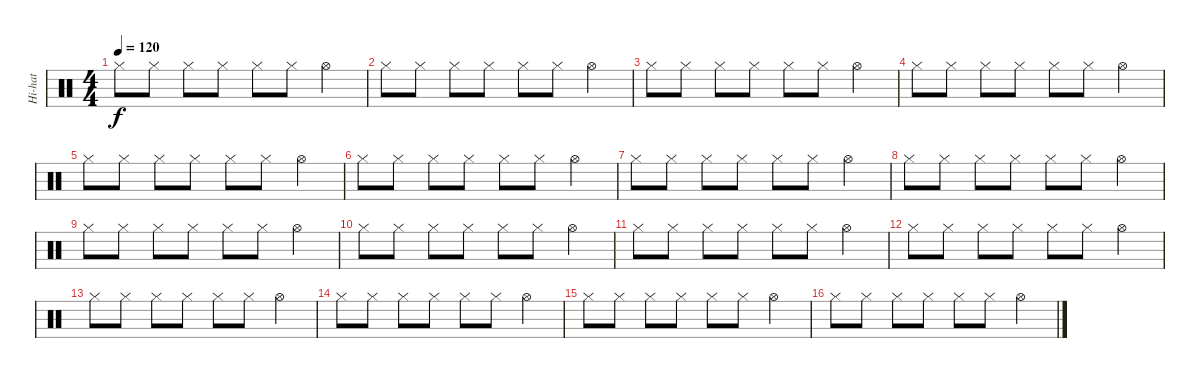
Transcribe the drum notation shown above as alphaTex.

\track ("Hi-hat" "Hi-hat") {instrument percussion}
\staff {score}
\articulation defaults
\ts (4 4)
\tempo 120
\clef neutral
\ks c "Hi-Hat (closed)".8{dy f} "Hi-Hat (closed)".8 "Hi-Hat (closed)".8 "Hi-Hat (closed)".8 "Hi-Hat (closed)".8 "Hi-Hat (closed)".8 "Hi-Hat (open)".4
|
"Hi-Hat (closed)".8 "Hi-Hat (closed)".8 "Hi-Hat (closed)".8 "Hi-Hat (closed)".8 "Hi-Hat (closed)".8 "Hi-Hat (closed)".8 "Hi-Hat (open)".4 |
"Hi-Hat (closed)".8 "Hi-Hat (closed)".8 "Hi-Hat (closed)".8 "Hi-Hat (closed)".8 "Hi-Hat (closed)".8 "Hi-Hat (closed)".8 "Hi-Hat (open)".4 |
"Hi-Hat (closed)".8 "Hi-Hat (closed)".8 "Hi-Hat (closed)".8 "Hi-Hat (closed)".8 "Hi-Hat (closed)".8 "Hi-Hat (closed)".8 "Hi-Hat (open)".4 |
"Hi-Hat (closed)".8 "Hi-Hat (closed)".8 "Hi-Hat (closed)".8 "Hi-Hat (closed)".8 "Hi-Hat (closed)".8 "Hi-Hat (closed)".8 "Hi-Hat (open)".4 |
"Hi-Hat (closed)".8 "Hi-Hat (closed)".8 "Hi-Hat (closed)".8 "Hi-Hat (closed)".8 "Hi-Hat (closed)".8 "Hi-Hat (closed)".8 "Hi-Hat (open)".4 |
"Hi-Hat (closed)".8 "Hi-Hat (closed)".8 "Hi-Hat (closed)".8 "Hi-Hat (closed)".8 "Hi-Hat (closed)".8 "Hi-Hat (closed)".8 "Hi-Hat (open)".4 |
"Hi-Hat (closed)".8 "Hi-Hat (closed)".8 "Hi-Hat (closed)".8 "Hi-Hat (closed)".8 "Hi-Hat (closed)".8 "Hi-Hat (closed)".8 "Hi-Hat (open)".4 |
"Hi-Hat (closed)".8 "Hi-Hat (closed)".8 "Hi-Hat (closed)".8 "Hi-Hat (closed)".8 "Hi-Hat (closed)".8 "Hi-Hat (closed)".8 "Hi-Hat (open)".4 |
"Hi-Hat (closed)".8 "Hi-Hat (closed)".8 "Hi-Hat (closed)".8 "Hi-Hat (closed)".8 "Hi-Hat (closed)".8 "Hi-Hat (closed)".8 "Hi-Hat (open)".4 |
"Hi-Hat (closed)".8 "Hi-Hat (closed)".8 "Hi-Hat (closed)".8 "Hi-Hat (closed)".8 "Hi-Hat (closed)".8 "Hi-Hat (closed)".8 "Hi-Hat (open)".4 |
"Hi-Hat (closed)".8 "Hi-Hat (closed)".8 "Hi-Hat (closed)".8 "Hi-Hat (closed)".8 "Hi-Hat (closed)".8 "Hi-Hat (closed)".8 "Hi-Hat (open)".4 |
"Hi-Hat (closed)".8 "Hi-Hat (closed)".8 "Hi-Hat (closed)".8 "Hi-Hat (closed)".8 "Hi-Hat (closed)".8 "Hi-Hat (closed)".8 "Hi-Hat (open)".4 |
"Hi-Hat (closed)".8 "Hi-Hat (closed)".8 "Hi-Hat (closed)".8 "Hi-Hat (closed)".8 "Hi-Hat (closed)".8 "Hi-Hat (closed)".8 "Hi-Hat (open)".4 |
"Hi-Hat (closed)".8 "Hi-Hat (closed)".8 "Hi-Hat (closed)".8 "Hi-Hat (closed)".8 "Hi-Hat (closed)".8 "Hi-Hat (closed)".8 "Hi-Hat (open)".4 |
"Hi-Hat (closed)".8 "Hi-Hat (closed)".8 "Hi-Hat (closed)".8 "Hi-Hat (closed)".8 "Hi-Hat (closed)".8 "Hi-Hat (closed)".8 "Hi-Hat (open)".4
